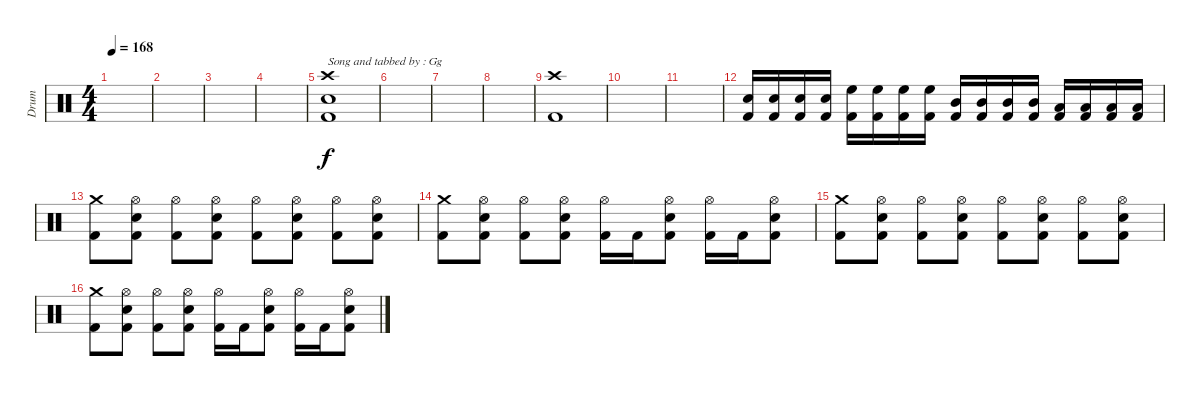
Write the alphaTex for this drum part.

\track ("Drum" "Drum") {instrument percussion}
\staff {score}
\articulation defaults
\ts (4 4)
\tempo 168
\clef neutral
\ks c
|
|
|
|
("Kick (hit) 2" "Electric Snare (hit)" "Crash high (hit)").1{txt "Song and tabbed by : Gg"} |
|
|
|
("Crash high (hit)" "Kick (hit) 2").1 |
|
|
("Electric Snare (hit)" "Kick (hit) 2").16 ("Electric Snare (hit)" "Kick (hit) 2").16 ("Electric Snare (hit)" "Kick (hit) 2").16 ("Electric Snare (hit)" "Kick (hit) 2").16 ("High Floor Tom (hit)" "Kick (hit) 2").16 ("High Floor Tom (hit)" "Kick (hit) 2").16 ("High Floor Tom (hit)" "Kick (hit) 2").16 ("High Floor Tom (hit)" "Kick (hit) 2").16 ("Mid Tom (hit)" "Kick (hit) 2").16 ("Mid Tom (hit)" "Kick (hit) 2").16 ("Mid Tom (hit)" "Kick (hit) 2").16 ("Mid Tom (hit)" "Kick (hit) 2").16 ("Low Tom (hit)" "Kick (hit) 2").16 ("Low Tom (hit)" "Kick (hit) 2").16 ("Low Tom (hit)" "Kick (hit) 2").16 ("Low Tom (hit)" "Kick (hit) 2").16 |
("Crash medium (hit)" "Kick (hit) 2").8 ("Hi-Hat (open)" "Electric Snare (hit)" "Kick (hit) 2").8 ("Hi-Hat (open)" "Kick (hit) 2").8 ("Hi-Hat (open)" "Electric Snare (hit)" "Kick (hit) 2").8 ("Hi-Hat (open)" "Kick (hit) 2").8 ("Hi-Hat (open)" "Electric Snare (hit)" "Kick (hit) 2").8 ("Hi-Hat (open)" "Kick (hit) 2").8 ("Hi-Hat (open)" "Electric Snare (hit)" "Kick (hit) 2").8 |
("Crash medium (hit)" "Kick (hit) 2").8 ("Hi-Hat (open)" "Electric Snare (hit)" "Kick (hit) 2").8 ("Hi-Hat (open)" "Kick (hit) 2").8 ("Hi-Hat (open)" "Electric Snare (hit)" "Kick (hit) 2").8 ("Hi-Hat (open)" "Kick (hit) 2").16 "Kick (hit) 2".16 ("Kick (hit) 2" "Hi-Hat (open)" "Electric Snare (hit)").8 ("Hi-Hat (open)" "Kick (hit) 2").16 "Kick (hit) 2".16 ("Kick (hit) 2" "Hi-Hat (open)" "Electric Snare (hit)").8 |
("Crash medium (hit)" "Kick (hit) 2").8 ("Hi-Hat (open)" "Electric Snare (hit)" "Kick (hit) 2").8 ("Hi-Hat (open)" "Kick (hit) 2").8 ("Hi-Hat (open)" "Electric Snare (hit)" "Kick (hit) 2").8 ("Hi-Hat (open)" "Kick (hit) 2").8 ("Hi-Hat (open)" "Electric Snare (hit)" "Kick (hit) 2").8 ("Hi-Hat (open)" "Kick (hit) 2").8 ("Hi-Hat (open)" "Electric Snare (hit)" "Kick (hit) 2").8 |
("Crash medium (hit)" "Kick (hit) 2").8 ("Hi-Hat (open)" "Electric Snare (hit)" "Kick (hit) 2").8 ("Hi-Hat (open)" "Kick (hit) 2").8 ("Hi-Hat (open)" "Electric Snare (hit)" "Kick (hit) 2").8 ("Hi-Hat (open)" "Kick (hit) 2").16 "Kick (hit) 2".16 ("Kick (hit) 2" "Hi-Hat (open)" "Electric Snare (hit)").8 ("Hi-Hat (open)" "Kick (hit) 2").16 "Kick (hit) 2".16 ("Kick (hit) 2" "Hi-Hat (open)" "Electric Snare (hit)").8
